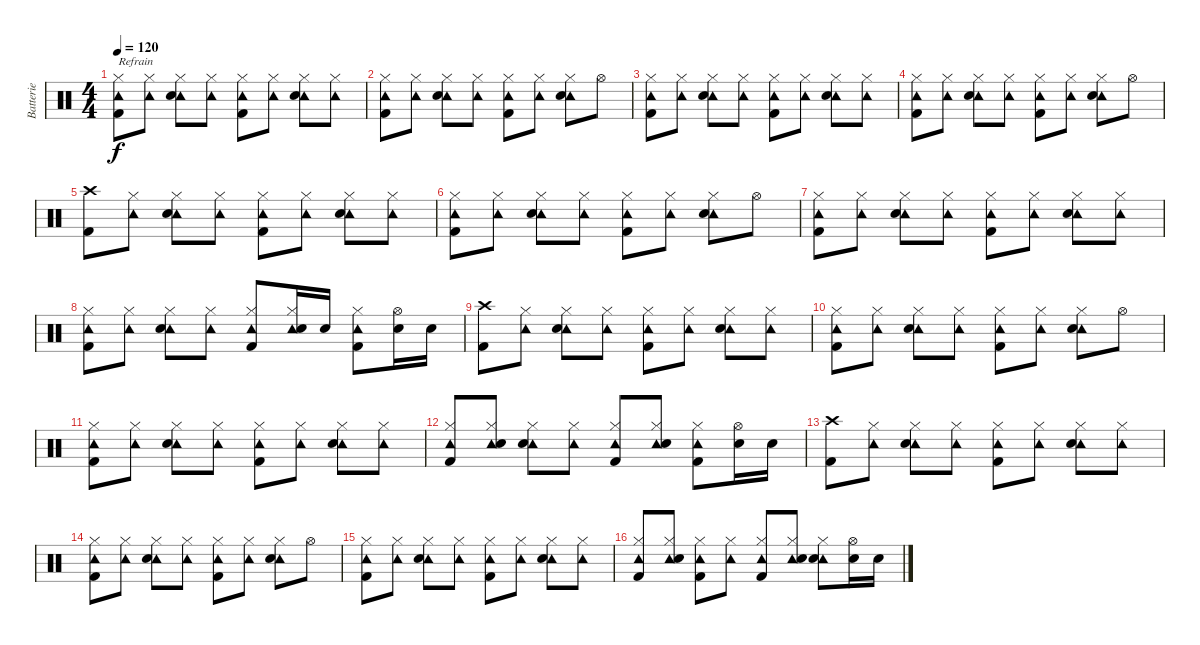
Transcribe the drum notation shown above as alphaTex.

\track ("Batterie" "Batterie") {instrument percussion}
\staff {score}
\articulation defaults
\ts (4 4)
\tempo 120
\clef neutral
\ks c
("Tambourine (hit)" "Hi-Hat (closed)" "Kick (hit) 2").8{txt "Refrain" dy f} ("Tambourine (hit)" "Hi-Hat (closed)").8 ("Tambourine (hit)" "Hi-Hat (closed)" "Electric Snare (hit)").8 ("Tambourine (hit)" "Hi-Hat (closed)").8 ("Tambourine (hit)" "Hi-Hat (closed)" "Kick (hit) 2").8 ("Tambourine (hit)" "Hi-Hat (closed)").8 ("Tambourine (hit)" "Hi-Hat (closed)" "Electric Snare (hit)").8 ("Tambourine (hit)" "Hi-Hat (closed)").8 |
("Tambourine (hit)" "Hi-Hat (closed)" "Kick (hit) 2").8 ("Tambourine (hit)" "Hi-Hat (closed)").8 ("Tambourine (hit)" "Hi-Hat (closed)" "Electric Snare (hit)").8 ("Tambourine (hit)" "Hi-Hat (closed)").8 ("Tambourine (hit)" "Hi-Hat (closed)" "Kick (hit) 2").8 ("Tambourine (hit)" "Hi-Hat (closed)").8 ("Tambourine (hit)" "Hi-Hat (closed)" "Electric Snare (hit)").8 "Hi-Hat (open)".8 |
("Tambourine (hit)" "Hi-Hat (closed)" "Kick (hit) 2").8 ("Tambourine (hit)" "Hi-Hat (closed)").8 ("Tambourine (hit)" "Hi-Hat (closed)" "Electric Snare (hit)").8 ("Tambourine (hit)" "Hi-Hat (closed)").8 ("Tambourine (hit)" "Hi-Hat (closed)" "Kick (hit) 2").8 ("Tambourine (hit)" "Hi-Hat (closed)").8 ("Tambourine (hit)" "Hi-Hat (closed)" "Electric Snare (hit)").8 ("Tambourine (hit)" "Hi-Hat (closed)").8 |
("Tambourine (hit)" "Hi-Hat (closed)" "Kick (hit) 2").8 ("Tambourine (hit)" "Hi-Hat (closed)").8 ("Tambourine (hit)" "Hi-Hat (closed)" "Electric Snare (hit)").8 ("Tambourine (hit)" "Hi-Hat (closed)").8 ("Tambourine (hit)" "Hi-Hat (closed)" "Kick (hit) 2").8 ("Tambourine (hit)" "Hi-Hat (closed)").8 ("Tambourine (hit)" "Hi-Hat (closed)" "Electric Snare (hit)").8 "Hi-Hat (open)".8 |
("Crash high (hit)" "Kick (hit) 2").8 ("Tambourine (hit)" "Hi-Hat (closed)").8 ("Tambourine (hit)" "Hi-Hat (closed)" "Electric Snare (hit)").8 ("Tambourine (hit)" "Hi-Hat (closed)").8 ("Tambourine (hit)" "Hi-Hat (closed)" "Kick (hit) 2").8 ("Tambourine (hit)" "Hi-Hat (closed)").8 ("Tambourine (hit)" "Hi-Hat (closed)" "Electric Snare (hit)").8 ("Tambourine (hit)" "Hi-Hat (closed)").8 |
("Tambourine (hit)" "Hi-Hat (closed)" "Kick (hit) 2").8 ("Tambourine (hit)" "Hi-Hat (closed)").8 ("Tambourine (hit)" "Hi-Hat (closed)" "Electric Snare (hit)").8 ("Tambourine (hit)" "Hi-Hat (closed)").8 ("Tambourine (hit)" "Hi-Hat (closed)" "Kick (hit) 2").8 ("Tambourine (hit)" "Hi-Hat (closed)").8 ("Tambourine (hit)" "Hi-Hat (closed)" "Electric Snare (hit)").8 "Hi-Hat (open)".8 |
("Tambourine (hit)" "Hi-Hat (closed)" "Kick (hit) 2").8 ("Tambourine (hit)" "Hi-Hat (closed)").8 ("Tambourine (hit)" "Hi-Hat (closed)" "Electric Snare (hit)").8 ("Tambourine (hit)" "Hi-Hat (closed)").8 ("Tambourine (hit)" "Hi-Hat (closed)" "Kick (hit) 2").8 ("Tambourine (hit)" "Hi-Hat (closed)").8 ("Tambourine (hit)" "Hi-Hat (closed)" "Electric Snare (hit)").8 ("Tambourine (hit)" "Hi-Hat (closed)").8 |
("Tambourine (hit)" "Hi-Hat (closed)" "Kick (hit) 2").8 ("Tambourine (hit)" "Hi-Hat (closed)").8 ("Tambourine (hit)" "Hi-Hat (closed)" "Electric Snare (hit)").8 ("Tambourine (hit)" "Hi-Hat (closed)").8 ("Tambourine (hit)" "Hi-Hat (closed)" "Kick (hit) 2").8 ("Tambourine (hit)" "Hi-Hat (closed)" "Electric Snare (hit)").16 "Electric Snare (hit)".16 ("Tambourine (hit)" "Hi-Hat (closed)" "Kick (hit) 2").8 ("Hi-Hat (open)" "Electric Snare (hit)").16 "Electric Snare (hit)".16 |
("Crash high (hit)" "Kick (hit) 2").8 ("Tambourine (hit)" "Hi-Hat (closed)").8 ("Tambourine (hit)" "Hi-Hat (closed)" "Electric Snare (hit)").8 ("Tambourine (hit)" "Hi-Hat (closed)").8 ("Tambourine (hit)" "Hi-Hat (closed)" "Kick (hit) 2").8 ("Tambourine (hit)" "Hi-Hat (closed)").8 ("Tambourine (hit)" "Hi-Hat (closed)" "Electric Snare (hit)").8 ("Tambourine (hit)" "Hi-Hat (closed)").8 |
("Tambourine (hit)" "Hi-Hat (closed)" "Kick (hit) 2").8 ("Tambourine (hit)" "Hi-Hat (closed)").8 ("Tambourine (hit)" "Hi-Hat (closed)" "Electric Snare (hit)").8 ("Tambourine (hit)" "Hi-Hat (closed)").8 ("Tambourine (hit)" "Hi-Hat (closed)" "Kick (hit) 2").8 ("Tambourine (hit)" "Hi-Hat (closed)").8 ("Tambourine (hit)" "Hi-Hat (closed)" "Electric Snare (hit)").8 "Hi-Hat (open)".8 |
("Tambourine (hit)" "Hi-Hat (closed)" "Kick (hit) 2").8 ("Tambourine (hit)" "Hi-Hat (closed)").8 ("Tambourine (hit)" "Hi-Hat (closed)" "Electric Snare (hit)").8 ("Tambourine (hit)" "Hi-Hat (closed)").8 ("Tambourine (hit)" "Hi-Hat (closed)" "Kick (hit) 2").8 ("Tambourine (hit)" "Hi-Hat (closed)").8 ("Tambourine (hit)" "Hi-Hat (closed)" "Electric Snare (hit)").8 ("Tambourine (hit)" "Hi-Hat (closed)").8 |
("Tambourine (hit)" "Hi-Hat (closed)" "Kick (hit) 2").8 ("Tambourine (hit)" "Hi-Hat (closed)" "Electric Snare (hit)").8 ("Tambourine (hit)" "Hi-Hat (closed)" "Electric Snare (hit)").8 ("Tambourine (hit)" "Hi-Hat (closed)").8 ("Tambourine (hit)" "Hi-Hat (closed)" "Kick (hit) 2").8 ("Tambourine (hit)" "Hi-Hat (closed)" "Electric Snare (hit)").8 ("Tambourine (hit)" "Hi-Hat (closed)" "Kick (hit) 2").8 ("Hi-Hat (open)" "Electric Snare (hit)").16 "Electric Snare (hit)".16 |
("Crash high (hit)" "Kick (hit) 2").8 ("Tambourine (hit)" "Hi-Hat (closed)").8 ("Tambourine (hit)" "Hi-Hat (closed)" "Electric Snare (hit)").8 ("Tambourine (hit)" "Hi-Hat (closed)").8 ("Tambourine (hit)" "Hi-Hat (closed)" "Kick (hit) 2").8 ("Tambourine (hit)" "Hi-Hat (closed)").8 ("Tambourine (hit)" "Hi-Hat (closed)" "Electric Snare (hit)").8 ("Tambourine (hit)" "Hi-Hat (closed)").8 |
("Tambourine (hit)" "Hi-Hat (closed)" "Kick (hit) 2").8 ("Tambourine (hit)" "Hi-Hat (closed)").8 ("Tambourine (hit)" "Hi-Hat (closed)" "Electric Snare (hit)").8 ("Tambourine (hit)" "Hi-Hat (closed)").8 ("Tambourine (hit)" "Hi-Hat (closed)" "Kick (hit) 2").8 ("Tambourine (hit)" "Hi-Hat (closed)").8 ("Tambourine (hit)" "Hi-Hat (closed)" "Electric Snare (hit)").8 "Hi-Hat (open)".8 |
("Tambourine (hit)" "Hi-Hat (closed)" "Kick (hit) 2").8 ("Tambourine (hit)" "Hi-Hat (closed)").8 ("Tambourine (hit)" "Hi-Hat (closed)" "Electric Snare (hit)").8 ("Tambourine (hit)" "Hi-Hat (closed)").8 ("Tambourine (hit)" "Hi-Hat (closed)" "Kick (hit) 2").8 ("Tambourine (hit)" "Hi-Hat (closed)").8 ("Tambourine (hit)" "Hi-Hat (closed)" "Electric Snare (hit)").8 ("Tambourine (hit)" "Hi-Hat (closed)").8 |
("Tambourine (hit)" "Hi-Hat (closed)" "Kick (hit) 2").8 ("Tambourine (hit)" "Hi-Hat (closed)" "Electric Snare (hit)").8 ("Tambourine (hit)" "Hi-Hat (closed)" "Kick (hit) 2").8 ("Tambourine (hit)" "Hi-Hat (closed)").8 ("Tambourine (hit)" "Hi-Hat (closed)" "Kick (hit) 2").8 ("Tambourine (hit)" "Hi-Hat (closed)" "Electric Snare (hit)").8 ("Tambourine (hit)" "Hi-Hat (closed)" "Electric Snare (hit)").8 ("Hi-Hat (open)" "Electric Snare (hit)").16 "Electric Snare (hit)".16
